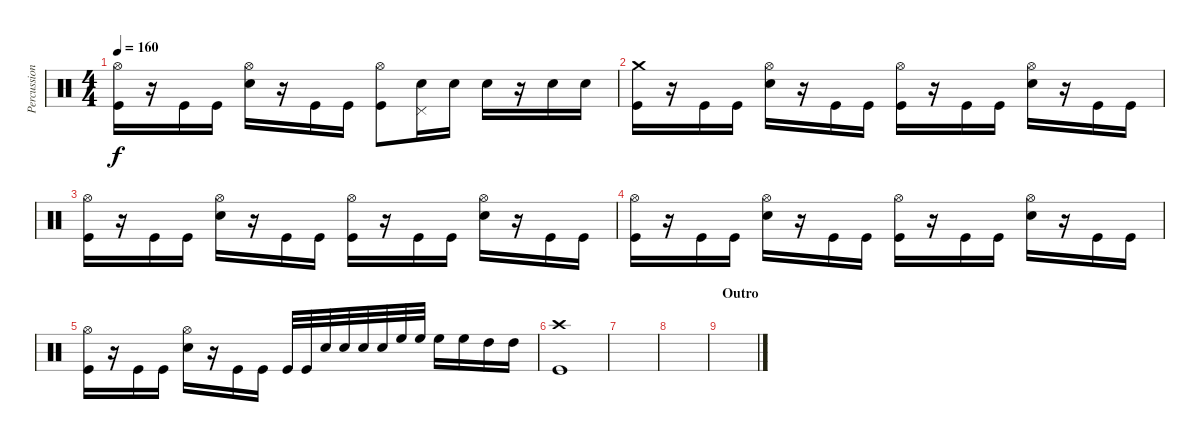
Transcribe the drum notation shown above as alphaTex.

\track ("Percussion" "Percussion") {instrument percussion}
\staff {score}
\articulation defaults
\ts (4 4)
\tempo 160
\clef neutral
\ks c
("Hi-Hat (open)" "Kick (hit)").16{dy f} r.16 "Kick (hit)".16 "Kick (hit)".16 ("Hi-Hat (open)" "Electric Snare (hit)").16 r.16 "Kick (hit)".16 "Kick (hit)".16 ("Hi-Hat (open)" "Kick (hit)").8 ("Pedal Hi-Hat (hit)" "Electric Snare (hit)").16 "Electric Snare (hit)".16 "Electric Snare (hit)".16 r.16 "Electric Snare (hit)".16 "Electric Snare (hit)".16 |
("Crash medium (hit)" "Kick (hit)").16 r.16 "Kick (hit)".16 "Kick (hit)".16 ("Hi-Hat (open)" "Electric Snare (hit)").16 r.16 "Kick (hit)".16 "Kick (hit)".16 ("Hi-Hat (open)" "Kick (hit)").16 r.16 "Kick (hit)".16 "Kick (hit)".16 ("Hi-Hat (open)" "Electric Snare (hit)").16 r.16 "Kick (hit)".16 "Kick (hit)".16 |
("Hi-Hat (open)" "Kick (hit)").16 r.16 "Kick (hit)".16 "Kick (hit)".16 ("Hi-Hat (open)" "Electric Snare (hit)").16 r.16 "Kick (hit)".16 "Kick (hit)".16 ("Hi-Hat (open)" "Kick (hit)").16 r.16 "Kick (hit)".16 "Kick (hit)".16 ("Hi-Hat (open)" "Electric Snare (hit)").16 r.16 "Kick (hit)".16 "Kick (hit)".16 |
("Hi-Hat (open)" "Kick (hit)").16 r.16 "Kick (hit)".16 "Kick (hit)".16 ("Hi-Hat (open)" "Electric Snare (hit)").16 r.16 "Kick (hit)".16 "Kick (hit)".16 ("Hi-Hat (open)" "Kick (hit)").16 r.16 "Kick (hit)".16 "Kick (hit)".16 ("Hi-Hat (open)" "Electric Snare (hit)").16 r.16 "Kick (hit)".16 "Kick (hit)".16 |
("Hi-Hat (open)" "Kick (hit)").16 r.16 "Kick (hit)".16 "Kick (hit)".16 ("Hi-Hat (open)" "Electric Snare (hit)").16 r.16 "Kick (hit)".16 "Kick (hit)".16 "Kick (hit)".32 "Kick (hit)".32 "Electric Snare (hit)".32 "Electric Snare (hit)".32 "Electric Snare (hit)".32 "Electric Snare (hit)".32 "High Floor Tom (hit)".32 "High Floor Tom (hit)".32 "High Floor Tom (hit)".16 "High Floor Tom (hit)".16 "High Tom (hit)".16 "High Tom (hit)".16 |
("Crash high (hit)" "Kick (hit)").1 |
|
|
\section ("" "Outro")
